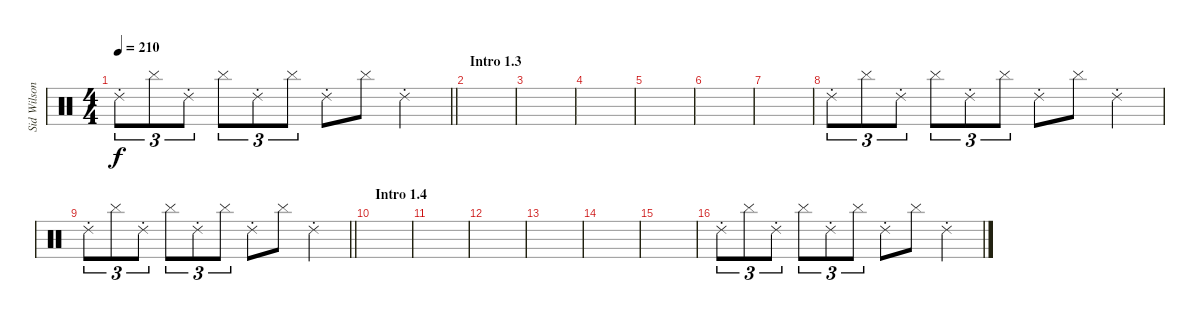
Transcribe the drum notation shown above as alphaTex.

\track ("Sid Wilson" "Sid Wilson") {instrument percussion}
\staff {score}
\articulation defaults
\ts (4 4)
\tempo 210
\clef neutral
\barLineRight lightlight
\ks c "Ride (choke) 2".8{tu (3 2) dy f} "Cymbal (hit)".8{tu (3 2)} "Ride (choke) 2".8{tu (3 2)} "Cymbal (hit)".8{tu (3 2)} "Ride (choke) 2".8{tu (3 2)} "Cymbal (hit)".8{tu (3 2)} "Ride (choke) 2".8 "Cymbal (hit)".8 "Ride (choke) 2".4
|
\section ("" "Intro 1.3")
|
|
|
|
|
|
"Ride (choke) 2".8{tu (3 2)} "Cymbal (hit)".8{tu (3 2)} "Ride (choke) 2".8{tu (3 2)} "Cymbal (hit)".8{tu (3 2)} "Ride (choke) 2".8{tu (3 2)} "Cymbal (hit)".8{tu (3 2)} "Ride (choke) 2".8 "Cymbal (hit)".8 "Ride (choke) 2".4 |
\barLineRight lightlight "Ride (choke) 2".8{tu (3 2)} "Cymbal (hit)".8{tu (3 2)} "Ride (choke) 2".8{tu (3 2)} "Cymbal (hit)".8{tu (3 2)} "Ride (choke) 2".8{tu (3 2)} "Cymbal (hit)".8{tu (3 2)} "Ride (choke) 2".8 "Cymbal (hit)".8 "Ride (choke) 2".4
|
\section ("" "Intro 1.4")
|
|
|
|
|
|
"Ride (choke) 2".8{tu (3 2)} "Cymbal (hit)".8{tu (3 2)} "Ride (choke) 2".8{tu (3 2)} "Cymbal (hit)".8{tu (3 2)} "Ride (choke) 2".8{tu (3 2)} "Cymbal (hit)".8{tu (3 2)} "Ride (choke) 2".8 "Cymbal (hit)".8 "Ride (choke) 2".4
